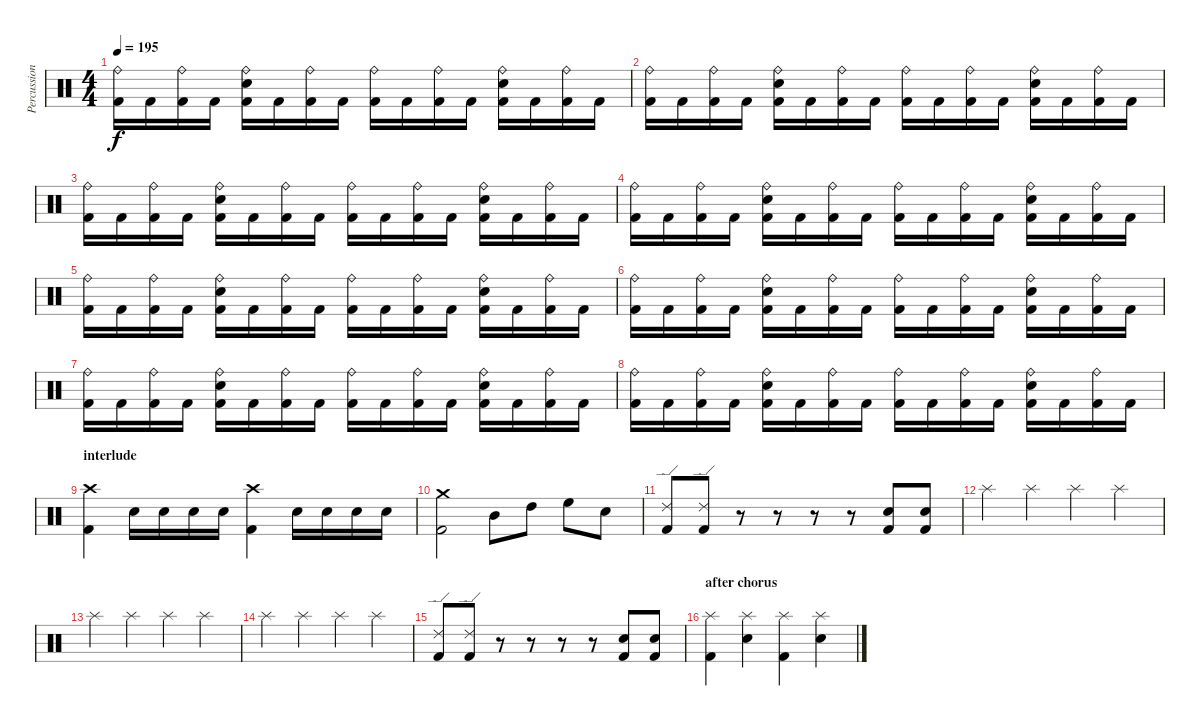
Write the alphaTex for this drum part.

\track ("Percussion" "Percussion") {instrument percussion}
\staff {score}
\articulation defaults
\ts (4 4)
\tempo 195
\clef neutral
\ks c
("Ride (bell)" "Kick (hit) 2").16{dy f} "Kick (hit) 2".16 ("Ride (bell)" "Kick (hit) 2").16 "Kick (hit) 2".16 ("Ride (bell)" "Electric Snare (hit)" "Kick (hit) 2").16 "Kick (hit) 2".16 ("Ride (bell)" "Kick (hit) 2").16 "Kick (hit) 2".16 ("Ride (bell)" "Kick (hit) 2").16 "Kick (hit) 2".16 ("Ride (bell)" "Kick (hit) 2").16 "Kick (hit) 2".16 ("Ride (bell)" "Electric Snare (hit)" "Kick (hit) 2").16 "Kick (hit) 2".16 ("Ride (bell)" "Kick (hit) 2").16 "Kick (hit) 2".16 |
("Ride (bell)" "Kick (hit) 2").16 "Kick (hit) 2".16 ("Ride (bell)" "Kick (hit) 2").16 "Kick (hit) 2".16 ("Ride (bell)" "Electric Snare (hit)" "Kick (hit) 2").16 "Kick (hit) 2".16 ("Ride (bell)" "Kick (hit) 2").16 "Kick (hit) 2".16 ("Ride (bell)" "Kick (hit) 2").16 "Kick (hit) 2".16 ("Ride (bell)" "Kick (hit) 2").16 "Kick (hit) 2".16 ("Ride (bell)" "Electric Snare (hit)" "Kick (hit) 2").16 "Kick (hit) 2".16 ("Ride (bell)" "Kick (hit) 2").16 "Kick (hit) 2".16 |
("Ride (bell)" "Kick (hit) 2").16 "Kick (hit) 2".16 ("Ride (bell)" "Kick (hit) 2").16 "Kick (hit) 2".16 ("Ride (bell)" "Electric Snare (hit)" "Kick (hit) 2").16 "Kick (hit) 2".16 ("Ride (bell)" "Kick (hit) 2").16 "Kick (hit) 2".16 ("Ride (bell)" "Kick (hit) 2").16 "Kick (hit) 2".16 ("Ride (bell)" "Kick (hit) 2").16 "Kick (hit) 2".16 ("Ride (bell)" "Electric Snare (hit)" "Kick (hit) 2").16 "Kick (hit) 2".16 ("Ride (bell)" "Kick (hit) 2").16 "Kick (hit) 2".16 |
("Ride (bell)" "Kick (hit) 2").16 "Kick (hit) 2".16 ("Ride (bell)" "Kick (hit) 2").16 "Kick (hit) 2".16 ("Ride (bell)" "Electric Snare (hit)" "Kick (hit) 2").16 "Kick (hit) 2".16 ("Ride (bell)" "Kick (hit) 2").16 "Kick (hit) 2".16 ("Ride (bell)" "Kick (hit) 2").16 "Kick (hit) 2".16 ("Ride (bell)" "Kick (hit) 2").16 "Kick (hit) 2".16 ("Ride (bell)" "Electric Snare (hit)" "Kick (hit) 2").16 "Kick (hit) 2".16 ("Ride (bell)" "Kick (hit) 2").16 "Kick (hit) 2".16 |
("Ride (bell)" "Kick (hit) 2").16 "Kick (hit) 2".16 ("Ride (bell)" "Kick (hit) 2").16 "Kick (hit) 2".16 ("Ride (bell)" "Electric Snare (hit)" "Kick (hit) 2").16 "Kick (hit) 2".16 ("Ride (bell)" "Kick (hit) 2").16 "Kick (hit) 2".16 ("Ride (bell)" "Kick (hit) 2").16 "Kick (hit) 2".16 ("Ride (bell)" "Kick (hit) 2").16 "Kick (hit) 2".16 ("Ride (bell)" "Electric Snare (hit)" "Kick (hit) 2").16 "Kick (hit) 2".16 ("Ride (bell)" "Kick (hit) 2").16 "Kick (hit) 2".16 |
("Ride (bell)" "Kick (hit) 2").16 "Kick (hit) 2".16 ("Ride (bell)" "Kick (hit) 2").16 "Kick (hit) 2".16 ("Ride (bell)" "Electric Snare (hit)" "Kick (hit) 2").16 "Kick (hit) 2".16 ("Ride (bell)" "Kick (hit) 2").16 "Kick (hit) 2".16 ("Ride (bell)" "Kick (hit) 2").16 "Kick (hit) 2".16 ("Ride (bell)" "Kick (hit) 2").16 "Kick (hit) 2".16 ("Ride (bell)" "Electric Snare (hit)" "Kick (hit) 2").16 "Kick (hit) 2".16 ("Ride (bell)" "Kick (hit) 2").16 "Kick (hit) 2".16 |
\section ("" "")
("Ride (bell)" "Kick (hit) 2").16 "Kick (hit) 2".16 ("Ride (bell)" "Kick (hit) 2").16 "Kick (hit) 2".16 ("Ride (bell)" "Electric Snare (hit)" "Kick (hit) 2").16 "Kick (hit) 2".16 ("Ride (bell)" "Kick (hit) 2").16 "Kick (hit) 2".16 ("Ride (bell)" "Kick (hit) 2").16 "Kick (hit) 2".16 ("Ride (bell)" "Kick (hit) 2").16 "Kick (hit) 2".16 ("Ride (bell)" "Electric Snare (hit)" "Kick (hit) 2").16 "Kick (hit) 2".16 ("Ride (bell)" "Kick (hit) 2").16 "Kick (hit) 2".16 |
("Ride (bell)" "Kick (hit) 2").16 "Kick (hit) 2".16 ("Ride (bell)" "Kick (hit) 2").16 "Kick (hit) 2".16 ("Ride (bell)" "Electric Snare (hit)" "Kick (hit) 2").16 "Kick (hit) 2".16 ("Ride (bell)" "Kick (hit) 2").16 "Kick (hit) 2".16 ("Ride (bell)" "Kick (hit) 2").16 "Kick (hit) 2".16 ("Ride (bell)" "Kick (hit) 2").16 "Kick (hit) 2".16 ("Ride (bell)" "Electric Snare (hit)" "Kick (hit) 2").16 "Kick (hit) 2".16 ("Ride (bell)" "Kick (hit) 2").16 "Kick (hit) 2".16 |
\section ("" "interlude")
("Crash high (hit)" "Kick (hit) 2").4 "Electric Snare (hit)".16 "Electric Snare (hit)".16 "Electric Snare (hit)".16 "Electric Snare (hit)".16 ("Crash high (hit)" "Kick (hit) 2").4 "Electric Snare (hit)".16 "Electric Snare (hit)".16 "Electric Snare (hit)".16 "Electric Snare (hit)".16 |
("Crash medium (hit)" "Kick (hit) 2").2 "Mid Tom (hit)".8 "High Tom (hit)".8 "High Floor Tom (hit)".8 "Snare (hit) 2".8 |
("Ride (edge) 2" "Kick (hit) 2").8 ("Ride (edge) 2" "Kick (hit) 2").8 r.8 r.8 r.8 r.8 ("Metronome (bell)" "Kick (hit) 2").8 ("Metronome (bell)" "Kick (hit) 2").8 |
"Splash (hit)".4 "Splash (hit)".4 "Splash (hit)".4 "Splash (hit)".4 |
"Splash (hit)".4 "Splash (hit)".4 "Splash (hit)".4 "Splash (hit)".4 |
"Splash (hit)".4 "Splash (hit)".4 "Splash (hit)".4 "Splash (hit)".4 |
("Ride (edge) 2" "Kick (hit) 2").8 ("Ride (edge) 2" "Kick (hit) 2").8 r.8 r.8 r.8 r.8 ("Metronome (bell)" "Kick (hit) 2").8 ("Metronome (bell)" "Kick (hit) 2").8 |
\section ("" "after chorus")
("Splash (hit)" "Kick (hit) 2").4 ("Splash (hit)" "Electric Snare (hit)").4 ("Splash (hit)" "Kick (hit) 2").4 ("Splash (hit)" "Electric Snare (hit)").4
